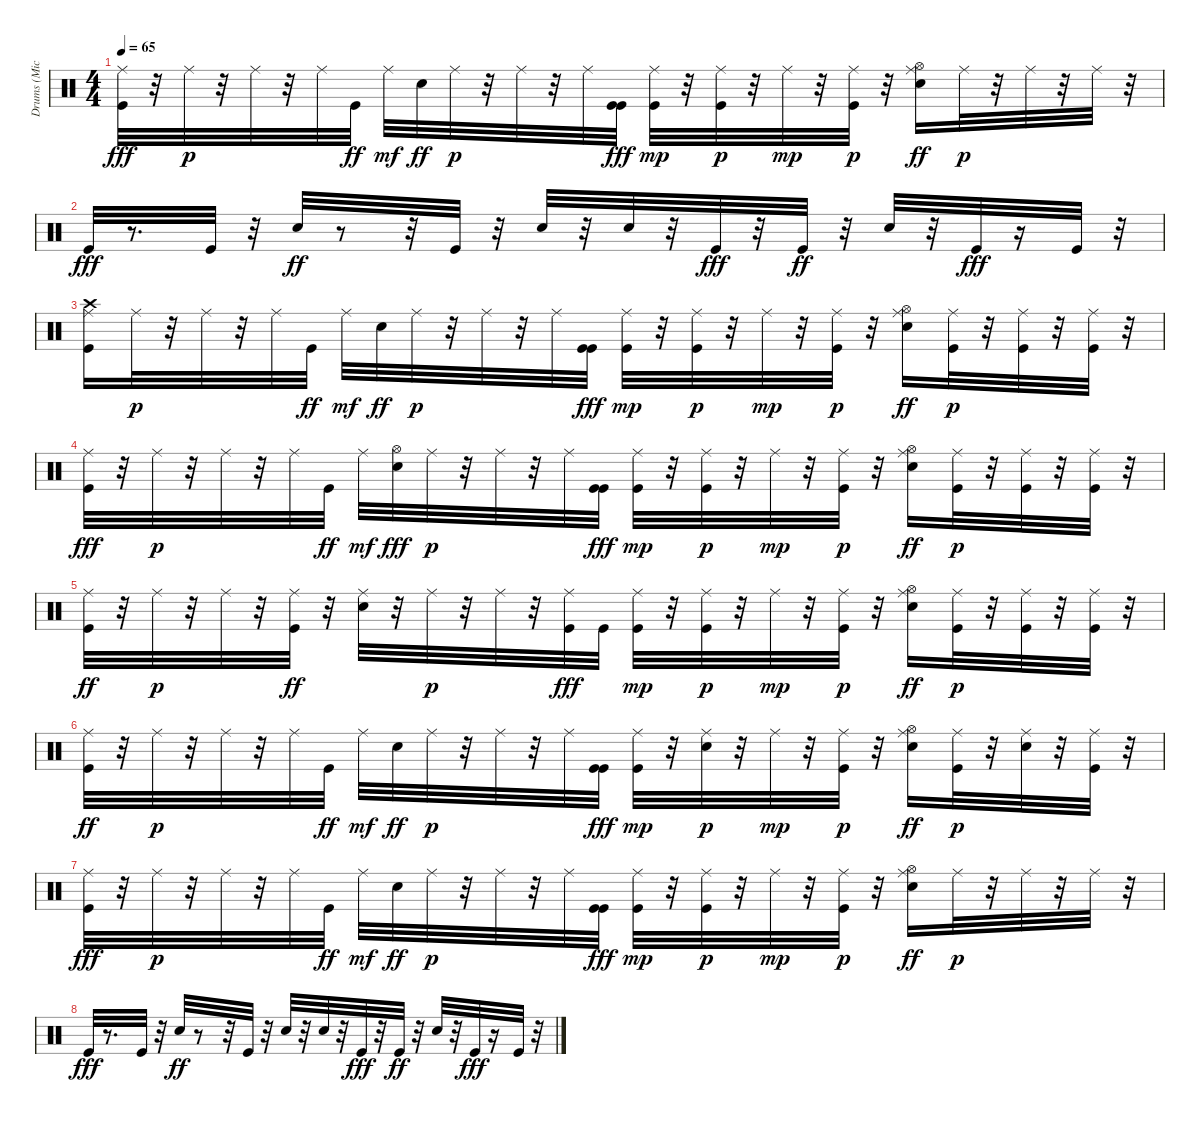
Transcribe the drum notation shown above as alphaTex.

\track ("Drums (Michael Giles)" "Drums (Mic") {instrument percussion}
\staff {score}
\articulation defaults
\ts (4 4)
\tempo 65
\clef neutral
\ks c
("Ride (middle)" "Kick (hit)").32{dy fff} r.32 "Ride (middle)".32{dy p} r.32 "Ride (middle)".32 r.32 "Ride (middle)".32 "Kick (hit)".32{dy ff} "Ride (middle)".32{dy mf} "Snare (hit) 2".32{dy ff} "Ride (middle)".32{dy p} r.32 "Ride (middle)".32 r.32 "Ride (middle)".32 ("Kick (hit)" "Kick (hit)").32{dy fff} ("Kick (hit)" "Ride (middle)").32{dy mp} r.32 ("Kick (hit)" "Ride (middle)").32{dy p} r.32 "Ride (middle)".32{dy mp} r.32 ("Ride (middle)" "Kick (hit)").32{dy p} r.32 ("Ride (middle)" "Hi-Hat (open)" "Snare (hit) 2").16{dy ff} "Ride (middle)".32{dy p} r.32 "Ride (middle)".32 r.32 "Ride (middle)".32 r.32 |
"Kick (hit)".32{dy fff} r.8{d} "Kick (hit)".32 r.32 "Snare (hit) 2".32{dy ff} r.8 r.32 "Kick (hit)".32 r.32 "Snare (hit) 2".32 r.32 "Snare (hit) 2".32 r.32 "Kick (hit)".32{dy fff} r.32 "Kick (hit)".32{dy ff} r.32 "Snare (hit) 2".32 r.32 "Kick (hit)".32{dy fff} r.16 "Kick (hit)".32 r.32 |
("Ride (middle)" "Crash high (hit)" "Kick (hit)").16 "Ride (middle)".32{dy p} r.32 "Ride (middle)".32 r.32 "Ride (middle)".32 "Kick (hit)".32{dy ff} "Ride (middle)".32{dy mf} "Snare (hit) 2".32{dy ff} "Ride (middle)".32{dy p} r.32 "Ride (middle)".32 r.32 "Ride (middle)".32 ("Kick (hit)" "Kick (hit)").32{dy fff} ("Kick (hit)" "Ride (middle)").32{dy mp} r.32 ("Kick (hit)" "Ride (middle)").32{dy p} r.32 "Ride (middle)".32{dy mp} r.32 ("Ride (middle)" "Kick (hit)").32{dy p} r.32 ("Ride (middle)" "Hi-Hat (open)" "Snare (hit) 2").16{dy ff} ("Ride (middle)" "Kick (hit)").32{dy p} r.32 ("Ride (middle)" "Kick (hit)").32 r.32 ("Kick (hit)" "Ride (middle)").32 r.32 |
("Ride (middle)" "Kick (hit)").32{dy fff} r.32 "Ride (middle)".32{dy p} r.32 "Ride (middle)".32 r.32 "Ride (middle)".32 "Kick (hit)".32{dy ff} "Ride (middle)".32{dy mf} ("Snare (hit) 2" "Hi-Hat (open)").32{dy fff} "Ride (middle)".32{dy p} r.32 "Ride (middle)".32 r.32 "Ride (middle)".32 ("Kick (hit)" "Kick (hit)").32{dy fff} ("Kick (hit)" "Ride (middle)").32{dy mp} r.32 ("Kick (hit)" "Ride (middle)").32{dy p} r.32 "Ride (middle)".32{dy mp} r.32 ("Ride (middle)" "Kick (hit)").32{dy p} r.32 ("Hi-Hat (open)" "Ride (middle)" "Snare (hit) 2").16{dy ff} ("Ride (middle)" "Kick (hit)").32{dy p} r.32 ("Ride (middle)" "Kick (hit)").32 r.32 ("Kick (hit)" "Ride (middle)").32 r.32 |
("Kick (hit)" "Ride (middle)").32{dy ff} r.32 "Ride (middle)".32{dy p} r.32 "Ride (middle)".32 r.32 ("Ride (middle)" "Kick (hit)").32{dy ff} r.32 ("Ride (middle)" "Snare (hit) 2").32 r.32 "Ride (middle)".32{dy p} r.32 "Ride (middle)".32 r.32 ("Ride (middle)" "Kick (hit)").32{dy fff} "Kick (hit)".32 ("Kick (hit)" "Ride (middle)").32{dy mp} r.32 ("Kick (hit)" "Ride (middle)").32{dy p} r.32 "Ride (middle)".32{dy mp} r.32 ("Kick (hit)" "Ride (middle)").32{dy p} r.32 ("Ride (middle)" "Hi-Hat (open)" "Snare (hit) 2").16{dy ff} ("Ride (middle)" "Kick (hit)").32{dy p} r.32 ("Ride (middle)" "Kick (hit)").32 r.32 ("Kick (hit)" "Ride (middle)").32 r.32 |
("Kick (hit)" "Ride (middle)").32{dy ff} r.32 "Ride (middle)".32{dy p} r.32 "Ride (middle)".32 r.32 "Ride (middle)".32 "Kick (hit)".32{dy ff} "Ride (middle)".32{dy mf} "Snare (hit) 2".32{dy ff} "Ride (middle)".32{dy p} r.32 "Ride (middle)".32 r.32 "Ride (middle)".32 ("Kick (hit)" "Kick (hit)").32{dy fff} ("Kick (hit)" "Ride (middle)").32{dy mp} r.32 ("Snare (hit) 2" "Ride (middle)").32{dy p} r.32 "Ride (middle)".32{dy mp} r.32 ("Kick (hit)" "Ride (middle)").32{dy p} r.32 ("Ride (middle)" "Hi-Hat (open)" "Snare (hit) 2").16{dy ff} ("Ride (middle)" "Kick (hit)").32{dy p} r.32 ("Ride (middle)" "Snare (hit) 2").32 r.32 ("Kick (hit)" "Ride (middle)").32 r.32 |
("Ride (middle)" "Kick (hit)").32{dy fff} r.32 "Ride (middle)".32{dy p} r.32 "Ride (middle)".32 r.32 "Ride (middle)".32 "Kick (hit)".32{dy ff} "Ride (middle)".32{dy mf} "Snare (hit) 2".32{dy ff} "Ride (middle)".32{dy p} r.32 "Ride (middle)".32 r.32 "Ride (middle)".32 ("Kick (hit)" "Kick (hit)").32{dy fff} ("Kick (hit)" "Ride (middle)").32{dy mp} r.32 ("Kick (hit)" "Ride (middle)").32{dy p} r.32 "Ride (middle)".32{dy mp} r.32 ("Ride (middle)" "Kick (hit)").32{dy p} r.32 ("Ride (middle)" "Hi-Hat (open)" "Snare (hit) 2").16{dy ff} "Ride (middle)".32{dy p} r.32 "Ride (middle)".32 r.32 "Ride (middle)".32 r.32 |
"Kick (hit)".32{dy fff} r.8{d} "Kick (hit)".32 r.32 "Snare (hit) 2".32{dy ff} r.8 r.32 "Kick (hit)".32 r.32 "Snare (hit) 2".32 r.32 "Snare (hit) 2".32 r.32 "Kick (hit)".32{dy fff} r.32 "Kick (hit)".32{dy ff} r.32 "Snare (hit) 2".32 r.32 "Kick (hit)".32{dy fff} r.16 "Kick (hit)".32 r.32
